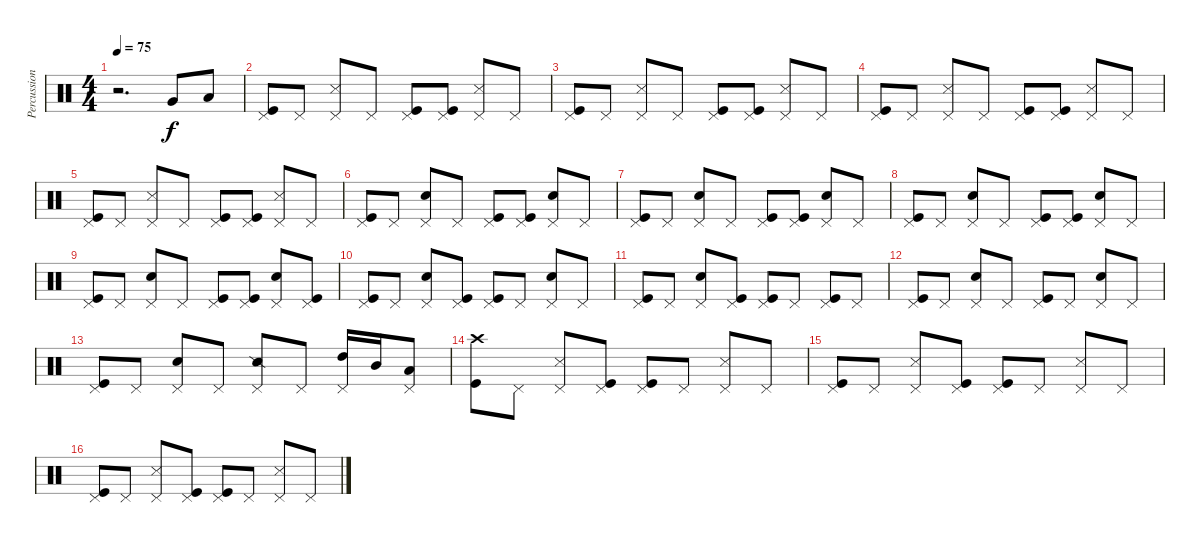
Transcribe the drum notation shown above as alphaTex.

\track ("Percussion" "Percussion") {instrument percussion}
\staff {score}
\articulation defaults
\ts (4 4)
\tempo 75
\clef neutral
\ks c
r.2{d dy f} "Very Low Tom (hit)".8 "Low Floor Tom (hit)".8 |
("Kick (hit)" "Pedal Hi-Hat (hit)").8 "Pedal Hi-Hat (hit)".8 ("Snare (side stick) 3" "Pedal Hi-Hat (hit)").8 "Pedal Hi-Hat (hit)".8 ("Kick (hit)" "Pedal Hi-Hat (hit)").8 ("Kick (hit)" "Pedal Hi-Hat (hit)").8 ("Snare (side stick) 3" "Pedal Hi-Hat (hit)").8 "Pedal Hi-Hat (hit)".8 |
("Kick (hit)" "Pedal Hi-Hat (hit)").8 "Pedal Hi-Hat (hit)".8 ("Snare (side stick) 3" "Pedal Hi-Hat (hit)").8 "Pedal Hi-Hat (hit)".8 ("Kick (hit)" "Pedal Hi-Hat (hit)").8 ("Kick (hit)" "Pedal Hi-Hat (hit)").8 ("Snare (side stick) 3" "Pedal Hi-Hat (hit)").8 "Pedal Hi-Hat (hit)".8 |
("Kick (hit)" "Pedal Hi-Hat (hit)").8 "Pedal Hi-Hat (hit)".8 ("Snare (side stick) 3" "Pedal Hi-Hat (hit)").8 "Pedal Hi-Hat (hit)".8 ("Kick (hit)" "Pedal Hi-Hat (hit)").8 ("Kick (hit)" "Pedal Hi-Hat (hit)").8 ("Snare (side stick) 3" "Pedal Hi-Hat (hit)").8 "Pedal Hi-Hat (hit)".8 |
("Kick (hit)" "Pedal Hi-Hat (hit)").8 "Pedal Hi-Hat (hit)".8 ("Snare (side stick) 3" "Pedal Hi-Hat (hit)").8 "Pedal Hi-Hat (hit)".8 ("Kick (hit)" "Pedal Hi-Hat (hit)").8 ("Kick (hit)" "Pedal Hi-Hat (hit)").8 ("Snare (side stick) 3" "Pedal Hi-Hat (hit)").8 "Pedal Hi-Hat (hit)".8 |
("Kick (hit)" "Pedal Hi-Hat (hit)").8 "Pedal Hi-Hat (hit)".8 ("Snare (hit) 2" "Pedal Hi-Hat (hit)").8 "Pedal Hi-Hat (hit)".8 ("Kick (hit)" "Pedal Hi-Hat (hit)").8 ("Kick (hit)" "Pedal Hi-Hat (hit)").8 ("Snare (hit) 2" "Pedal Hi-Hat (hit)").8 "Pedal Hi-Hat (hit)".8 |
("Kick (hit)" "Pedal Hi-Hat (hit)").8 "Pedal Hi-Hat (hit)".8 ("Snare (hit) 2" "Pedal Hi-Hat (hit)").8 "Pedal Hi-Hat (hit)".8 ("Kick (hit)" "Pedal Hi-Hat (hit)").8 ("Kick (hit)" "Pedal Hi-Hat (hit)").8 ("Snare (hit) 2" "Pedal Hi-Hat (hit)").8 "Pedal Hi-Hat (hit)".8 |
("Kick (hit)" "Pedal Hi-Hat (hit)").8 "Pedal Hi-Hat (hit)".8 ("Snare (hit) 2" "Pedal Hi-Hat (hit)").8 "Pedal Hi-Hat (hit)".8 ("Kick (hit)" "Pedal Hi-Hat (hit)").8 ("Kick (hit)" "Pedal Hi-Hat (hit)").8 ("Snare (hit) 2" "Pedal Hi-Hat (hit)").8 "Pedal Hi-Hat (hit)".8 |
("Kick (hit)" "Pedal Hi-Hat (hit)").8 "Pedal Hi-Hat (hit)".8 ("Snare (hit) 2" "Pedal Hi-Hat (hit)").8 "Pedal Hi-Hat (hit)".8 ("Kick (hit)" "Pedal Hi-Hat (hit)").8 ("Kick (hit)" "Pedal Hi-Hat (hit)").8 ("Snare (hit) 2" "Pedal Hi-Hat (hit)").8 ("Kick (hit)" "Pedal Hi-Hat (hit)").8 |
("Kick (hit)" "Pedal Hi-Hat (hit)").8 "Pedal Hi-Hat (hit)".8 ("Snare (hit) 2" "Pedal Hi-Hat (hit)").8 ("Kick (hit)" "Pedal Hi-Hat (hit)").8 ("Kick (hit)" "Pedal Hi-Hat (hit)").8 "Pedal Hi-Hat (hit)".8 ("Snare (hit) 2" "Pedal Hi-Hat (hit)").8 "Pedal Hi-Hat (hit)".8 |
("Kick (hit)" "Pedal Hi-Hat (hit)").8 "Pedal Hi-Hat (hit)".8 ("Snare (hit) 2" "Pedal Hi-Hat (hit)").8 ("Kick (hit)" "Pedal Hi-Hat (hit)").8 ("Kick (hit)" "Pedal Hi-Hat (hit)").8 "Pedal Hi-Hat (hit)".8 ("Kick (hit)" "Pedal Hi-Hat (hit)").8 "Pedal Hi-Hat (hit)".8 |
("Kick (hit)" "Pedal Hi-Hat (hit)").8 "Pedal Hi-Hat (hit)".8 ("Snare (hit) 2" "Pedal Hi-Hat (hit)").8 "Pedal Hi-Hat (hit)".8 ("Kick (hit)" "Pedal Hi-Hat (hit)").8 "Pedal Hi-Hat (hit)".8 ("Snare (hit) 2" "Pedal Hi-Hat (hit)").8 "Pedal Hi-Hat (hit)".8 |
("Kick (hit)" "Pedal Hi-Hat (hit)").8 "Pedal Hi-Hat (hit)".8 ("Snare (hit) 2" "Pedal Hi-Hat (hit)").8 "Pedal Hi-Hat (hit)".8 ("Snare (side stick) 2" "Pedal Hi-Hat (hit)").8 "Pedal Hi-Hat (hit)".8 ("High Tom (hit)" "Pedal Hi-Hat (hit)").16 "Mid Tom (hit)".16 ("Low Tom (hit)" "Pedal Hi-Hat (hit)").8 |
("Kick (hit)" "Crash high (hit)").8 "Pedal Hi-Hat (hit)".8 ("Snare (side stick) 3" "Pedal Hi-Hat (hit)").8 ("Kick (hit)" "Pedal Hi-Hat (hit)").8 ("Kick (hit)" "Pedal Hi-Hat (hit)").8 "Pedal Hi-Hat (hit)".8 ("Snare (side stick) 3" "Pedal Hi-Hat (hit)").8 "Pedal Hi-Hat (hit)".8 |
("Kick (hit)" "Pedal Hi-Hat (hit)").8 "Pedal Hi-Hat (hit)".8 ("Snare (side stick) 3" "Pedal Hi-Hat (hit)").8 ("Kick (hit)" "Pedal Hi-Hat (hit)").8 ("Kick (hit)" "Pedal Hi-Hat (hit)").8 "Pedal Hi-Hat (hit)".8 ("Snare (side stick) 3" "Pedal Hi-Hat (hit)").8 "Pedal Hi-Hat (hit)".8 |
("Kick (hit)" "Pedal Hi-Hat (hit)").8 "Pedal Hi-Hat (hit)".8 ("Snare (side stick) 3" "Pedal Hi-Hat (hit)").8 ("Kick (hit)" "Pedal Hi-Hat (hit)").8 ("Kick (hit)" "Pedal Hi-Hat (hit)").8 "Pedal Hi-Hat (hit)".8 ("Snare (side stick) 3" "Pedal Hi-Hat (hit)").8 "Pedal Hi-Hat (hit)".8
